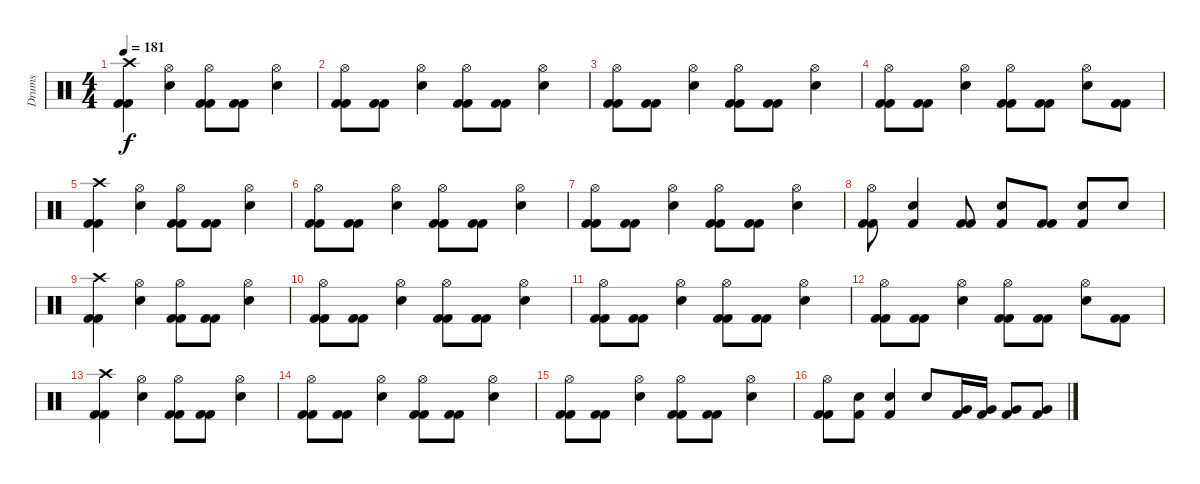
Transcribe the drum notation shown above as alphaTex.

\track ("Drums" "Drums") {instrument percussion}
\staff {score}
\articulation defaults
\ts (4 4)
\tempo 181
\clef neutral
\ks c
("Crash high (hit)" "Kick (hit) 2" "Kick (hit) 2").4{dy f} ("Hi-Hat (open)" "Electric Snare (hit)").4 ("Hi-Hat (open)" "Kick (hit) 2" "Kick (hit) 2").8 ("Kick (hit) 2" "Kick (hit) 2").8 ("Hi-Hat (open)" "Electric Snare (hit)").4 |
("Hi-Hat (open)" "Kick (hit) 2" "Kick (hit) 2").8 ("Kick (hit) 2" "Kick (hit) 2").8 ("Hi-Hat (open)" "Electric Snare (hit)").4 ("Hi-Hat (open)" "Kick (hit) 2" "Kick (hit) 2").8 ("Kick (hit) 2" "Kick (hit) 2").8 ("Hi-Hat (open)" "Electric Snare (hit)").4 |
("Hi-Hat (open)" "Kick (hit) 2" "Kick (hit) 2").8 ("Kick (hit) 2" "Kick (hit) 2").8 ("Hi-Hat (open)" "Electric Snare (hit)").4 ("Hi-Hat (open)" "Kick (hit) 2" "Kick (hit) 2").8 ("Kick (hit) 2" "Kick (hit) 2").8 ("Hi-Hat (open)" "Electric Snare (hit)").4 |
("Hi-Hat (open)" "Kick (hit) 2" "Kick (hit) 2").8 ("Kick (hit) 2" "Kick (hit) 2").8 ("Hi-Hat (open)" "Electric Snare (hit)").4 ("Hi-Hat (open)" "Kick (hit) 2" "Kick (hit) 2").8 ("Kick (hit) 2" "Kick (hit) 2").8 ("Hi-Hat (open)" "Electric Snare (hit)").8 ("Kick (hit) 2" "Kick (hit) 2").8 |
("Crash high (hit)" "Kick (hit) 2" "Kick (hit) 2").4 ("Hi-Hat (open)" "Electric Snare (hit)").4 ("Hi-Hat (open)" "Kick (hit) 2" "Kick (hit) 2").8 ("Kick (hit) 2" "Kick (hit) 2").8 ("Hi-Hat (open)" "Electric Snare (hit)").4 |
("Hi-Hat (open)" "Kick (hit) 2" "Kick (hit) 2").8 ("Kick (hit) 2" "Kick (hit) 2").8 ("Hi-Hat (open)" "Electric Snare (hit)").4 ("Hi-Hat (open)" "Kick (hit) 2" "Kick (hit) 2").8 ("Kick (hit) 2" "Kick (hit) 2").8 ("Hi-Hat (open)" "Electric Snare (hit)").4 |
("Hi-Hat (open)" "Kick (hit) 2" "Kick (hit) 2").8 ("Kick (hit) 2" "Kick (hit) 2").8 ("Hi-Hat (open)" "Electric Snare (hit)").4 ("Hi-Hat (open)" "Kick (hit) 2" "Kick (hit) 2").8 ("Kick (hit) 2" "Kick (hit) 2").8 ("Hi-Hat (open)" "Electric Snare (hit)").4 |
("Hi-Hat (open)" "Kick (hit) 2" "Kick (hit) 2").8 ("Electric Snare (hit)" "Kick (hit) 2").4 ("Kick (hit) 2" "Kick (hit) 2").8 ("Electric Snare (hit)" "Kick (hit) 2").8 ("Kick (hit) 2" "Kick (hit) 2").8 ("Electric Snare (hit)" "Kick (hit) 2").8 "Snare (hit) 2".8 |
("Crash high (hit)" "Kick (hit) 2" "Kick (hit) 2").4 ("Hi-Hat (open)" "Electric Snare (hit)").4 ("Hi-Hat (open)" "Kick (hit) 2" "Kick (hit) 2").8 ("Kick (hit) 2" "Kick (hit) 2").8 ("Hi-Hat (open)" "Electric Snare (hit)").4 |
("Hi-Hat (open)" "Kick (hit) 2" "Kick (hit) 2").8 ("Kick (hit) 2" "Kick (hit) 2").8 ("Hi-Hat (open)" "Electric Snare (hit)").4 ("Hi-Hat (open)" "Kick (hit) 2" "Kick (hit) 2").8 ("Kick (hit) 2" "Kick (hit) 2").8 ("Hi-Hat (open)" "Electric Snare (hit)").4 |
("Hi-Hat (open)" "Kick (hit) 2" "Kick (hit) 2").8 ("Kick (hit) 2" "Kick (hit) 2").8 ("Hi-Hat (open)" "Electric Snare (hit)").4 ("Hi-Hat (open)" "Kick (hit) 2" "Kick (hit) 2").8 ("Kick (hit) 2" "Kick (hit) 2").8 ("Hi-Hat (open)" "Electric Snare (hit)").4 |
("Hi-Hat (open)" "Kick (hit) 2" "Kick (hit) 2").8 ("Kick (hit) 2" "Kick (hit) 2").8 ("Hi-Hat (open)" "Electric Snare (hit)").4 ("Hi-Hat (open)" "Kick (hit) 2" "Kick (hit) 2").8 ("Kick (hit) 2" "Kick (hit) 2").8 ("Hi-Hat (open)" "Electric Snare (hit)").8 ("Kick (hit) 2" "Kick (hit) 2").8 |
("Crash high (hit)" "Kick (hit) 2" "Kick (hit) 2").4 ("Hi-Hat (open)" "Electric Snare (hit)").4 ("Hi-Hat (open)" "Kick (hit) 2" "Kick (hit) 2").8 ("Kick (hit) 2" "Kick (hit) 2").8 ("Hi-Hat (open)" "Electric Snare (hit)").4 |
("Hi-Hat (open)" "Kick (hit) 2" "Kick (hit) 2").8 ("Kick (hit) 2" "Kick (hit) 2").8 ("Hi-Hat (open)" "Electric Snare (hit)").4 ("Hi-Hat (open)" "Kick (hit) 2" "Kick (hit) 2").8 ("Kick (hit) 2" "Kick (hit) 2").8 ("Hi-Hat (open)" "Electric Snare (hit)").4 |
("Hi-Hat (open)" "Kick (hit) 2" "Kick (hit) 2").8 ("Kick (hit) 2" "Kick (hit) 2").8 ("Hi-Hat (open)" "Electric Snare (hit)").4 ("Hi-Hat (open)" "Kick (hit) 2" "Kick (hit) 2").8 ("Kick (hit) 2" "Kick (hit) 2").8 ("Hi-Hat (open)" "Electric Snare (hit)").4 |
("Hi-Hat (open)" "Kick (hit) 2" "Kick (hit) 2").8 ("Electric Snare (hit)" "Kick (hit) 2").8 ("Electric Snare (hit)" "Kick (hit) 2").4 "Electric Snare (hit)".8 ("Very Low Tom (hit)" "Kick (hit) 2").16 ("Very Low Tom (hit)" "Kick (hit) 2").16 ("Very Low Tom (hit)" "Kick (hit) 2").8 ("Very Low Tom (hit)" "Kick (hit) 2").8
